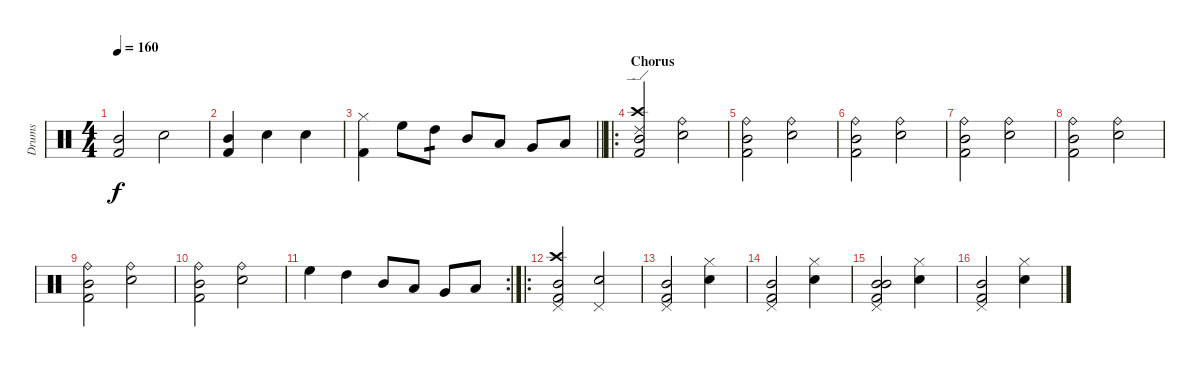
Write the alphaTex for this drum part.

\track ("Drums" "Drums") {instrument percussion}
\staff {score}
\articulation defaults
\ts (4 4)
\tempo 160
\clef neutral
\ks c
("Kick (hit) 2" "Mid Tom (hit)").2{dy f} "Electric Snare (hit)".2 |
("Kick (hit) 2" "Mid Tom (hit)").4 "Electric Snare (hit)".4 "Electric Snare (hit)".4 |
\barLineRight lightlight
("Kick (hit) 2" "Hi-Hat (closed)").4 "High Floor Tom (hit)".8 "High Tom (hit)".8{tp 1} "Mid Tom (hit)".8 "Low Tom (hit)".8 "Very Low Tom (hit)".8 "Low Floor Tom (hit)".8 |
\ro
\section ("" "Chorus")
("Crash high (hit)" "Kick (hit) 2" "Ride (edge) 2" "Mid Tom (hit)").2 ("Electric Snare (hit)" "Ride (bell)").2 |
("Kick (hit) 2" "Ride (bell)" "Mid Tom (hit)").2 ("Electric Snare (hit)" "Ride (bell)").2 |
("Kick (hit) 2" "Ride (bell)" "Mid Tom (hit)").2 ("Electric Snare (hit)" "Ride (bell)").2 |
("Kick (hit) 2" "Ride (bell)" "Mid Tom (hit)").2 ("Electric Snare (hit)" "Ride (bell)").2 |
("Kick (hit) 2" "Ride (bell)" "Mid Tom (hit)").2 ("Electric Snare (hit)" "Ride (bell)").2 |
("Kick (hit) 2" "Ride (bell)" "Mid Tom (hit)").2 ("Electric Snare (hit)" "Ride (bell)").2 |
("Kick (hit) 2" "Ride (bell)" "Mid Tom (hit)").2 ("Electric Snare (hit)" "Ride (bell)").2 |
\rc 2 "High Floor Tom (hit)".4 "High Tom (hit)".4 "Mid Tom (hit)".8 "Low Tom (hit)".8 "Very Low Tom (hit)".8 "Low Floor Tom (hit)".8
|
\ro
("Mid Tom (hit)" "Kick (hit) 2" "Pedal Hi-Hat (hit)" "Crash high (hit)").2 ("Electric Snare (hit)" "Pedal Hi-Hat (hit)").2 |
("Mid Tom (hit)" "Kick (hit) 2" "Pedal Hi-Hat (hit)").2 ("Electric Snare (hit)" "Hi-Hat (closed)").4 |
("Mid Tom (hit)" "Kick (hit) 2" "Pedal Hi-Hat (hit)").2 ("Electric Snare (hit)" "Hi-Hat (closed)").4 |
("Mid Tom (hit)" "Mid Tom (hit)" "Kick (hit) 2" "Pedal Hi-Hat (hit)").2 ("Electric Snare (hit)" "Hi-Hat (closed)").4 |
("Mid Tom (hit)" "Kick (hit) 2" "Pedal Hi-Hat (hit)").2 ("Electric Snare (hit)" "Hi-Hat (closed)").4
